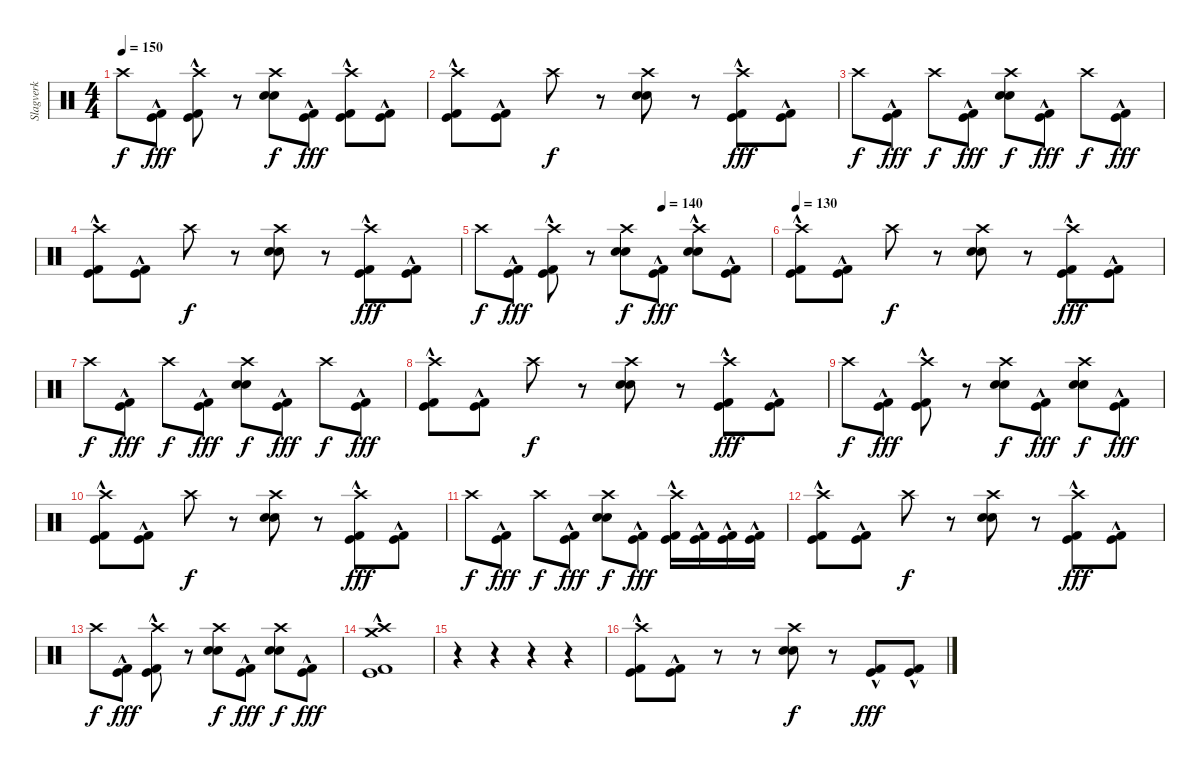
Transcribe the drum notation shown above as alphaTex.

\track ("Slagverk" "Slagverk") {instrument percussion}
\staff {score}
\articulation defaults
\ts (4 4)
\tempo 150
\clef neutral
\ks c "Crash high (hit)".8{dy f}
("Kick (hit)"{hac} "Kick (hit) 2"{hac}).8{dy fff} ("Crash high (hit)" "Kick (hit)"{hac} "Kick (hit) 2"{hac}).8 r.8 ("Crash high (hit)" "Electric Snare (hit)" "Snare (hit) 2").8{dy f} ("Kick (hit)"{hac} "Kick (hit) 2"{hac}).8{dy fff} ("Crash high (hit)" "Kick (hit)"{hac} "Kick (hit) 2"{hac}).8 ("Kick (hit)"{hac} "Kick (hit) 2"{hac}).8 |
("Crash high (hit)" "Kick (hit)"{hac} "Kick (hit) 2"{hac}).8 ("Kick (hit)"{hac} "Kick (hit) 2"{hac}).8 "Crash high (hit)".8{dy f} r.8 ("Crash high (hit)" "Electric Snare (hit)" "Snare (hit) 2").8 r.8 ("Crash high (hit)" "Kick (hit)"{hac} "Kick (hit) 2"{hac}).8{dy fff} ("Kick (hit)"{hac} "Kick (hit) 2"{hac}).8 |
"Crash high (hit)".8{dy f} ("Kick (hit)"{hac} "Kick (hit) 2"{hac}).8{dy fff} "Crash high (hit)".8{dy f} ("Kick (hit)"{hac} "Kick (hit) 2"{hac}).8{dy fff} ("Crash high (hit)" "Electric Snare (hit)" "Snare (hit) 2").8{dy f} ("Kick (hit)"{hac} "Kick (hit) 2"{hac}).8{dy fff} "Crash high (hit)".8{dy f} ("Kick (hit)"{hac} "Kick (hit) 2"{hac}).8{dy fff} |
("Crash high (hit)" "Kick (hit)"{hac} "Kick (hit) 2"{hac}).8 ("Kick (hit)"{hac} "Kick (hit) 2"{hac}).8 "Crash high (hit)".8{dy f} r.8 ("Crash high (hit)" "Electric Snare (hit)" "Snare (hit) 2").8 r.8 ("Crash high (hit)" "Kick (hit)"{hac} "Kick (hit) 2"{hac}).8{dy fff} ("Kick (hit)"{hac} "Kick (hit) 2"{hac}).8 |
\tempo (140 0.625)
"Crash high (hit)".8{dy f} ("Kick (hit)"{hac} "Kick (hit) 2"{hac}).8{dy fff} ("Crash high (hit)" "Kick (hit)"{hac} "Kick (hit) 2"{hac}).8 r.8 ("Crash high (hit)" "Electric Snare (hit)" "Snare (hit) 2").8{dy f} ("Kick (hit)"{hac} "Kick (hit) 2"{hac}).8{dy fff} ("Crash high (hit)" "Electric Snare (hit)"{hac} "Snare (hit) 2"{hac}).8 ("Kick (hit)"{hac} "Kick (hit) 2"{hac}).8 |
\tempo 130
("Crash high (hit)" "Kick (hit)"{hac} "Kick (hit) 2"{hac}).8 ("Kick (hit)"{hac} "Kick (hit) 2"{hac}).8 "Crash high (hit)".8{dy f} r.8 ("Crash high (hit)" "Electric Snare (hit)" "Snare (hit) 2").8 r.8 ("Crash high (hit)" "Kick (hit)"{hac} "Kick (hit) 2"{hac}).8{dy fff} ("Kick (hit)"{hac} "Kick (hit) 2"{hac}).8 |
"Crash high (hit)".8{dy f} ("Kick (hit)"{hac} "Kick (hit) 2"{hac}).8{dy fff} "Crash high (hit)".8{dy f} ("Kick (hit)"{hac} "Kick (hit) 2"{hac}).8{dy fff} ("Crash high (hit)" "Electric Snare (hit)" "Snare (hit) 2").8{dy f} ("Kick (hit)"{hac} "Kick (hit) 2"{hac}).8{dy fff} "Crash high (hit)".8{dy f} ("Kick (hit)"{hac} "Kick (hit) 2"{hac}).8{dy fff} |
("Crash high (hit)" "Kick (hit)"{hac} "Kick (hit) 2"{hac}).8 ("Kick (hit)"{hac} "Kick (hit) 2"{hac}).8 "Crash high (hit)".8{dy f} r.8 ("Crash high (hit)" "Electric Snare (hit)" "Snare (hit) 2").8 r.8 ("Crash high (hit)" "Kick (hit)"{hac} "Kick (hit) 2"{hac}).8{dy fff} ("Kick (hit)"{hac} "Kick (hit) 2"{hac}).8 |
"Crash high (hit)".8{dy f} ("Kick (hit)"{hac} "Kick (hit) 2"{hac}).8{dy fff} ("Crash high (hit)" "Kick (hit)"{hac} "Kick (hit) 2"{hac}).8 r.8 ("Crash high (hit)" "Electric Snare (hit)" "Snare (hit) 2").8{dy f} ("Kick (hit)"{hac} "Kick (hit) 2"{hac}).8{dy fff} ("Crash high (hit)" "Electric Snare (hit)" "Snare (hit) 2").8{dy f} ("Kick (hit)"{hac} "Kick (hit) 2"{hac}).8{dy fff} |
("Crash high (hit)" "Kick (hit)"{hac} "Kick (hit) 2"{hac}).8 ("Kick (hit)"{hac} "Kick (hit) 2"{hac}).8 "Crash high (hit)".8{dy f} r.8 ("Crash high (hit)" "Electric Snare (hit)" "Snare (hit) 2").8 r.8 ("Crash high (hit)" "Kick (hit)"{hac} "Kick (hit) 2"{hac}).8{dy fff} ("Kick (hit)"{hac} "Kick (hit) 2"{hac}).8 |
"Crash high (hit)".8{dy f} ("Kick (hit)"{hac} "Kick (hit) 2"{hac}).8{dy fff} "Crash high (hit)".8{dy f} ("Kick (hit)"{hac} "Kick (hit) 2"{hac}).8{dy fff} ("Crash high (hit)" "Electric Snare (hit)" "Snare (hit) 2").8{dy f} ("Kick (hit)"{hac} "Kick (hit) 2"{hac}).8{dy fff} ("Crash high (hit)" "Kick (hit)"{hac} "Kick (hit) 2"{hac}).16 ("Kick (hit)"{hac} "Kick (hit) 2"{hac}).16 ("Kick (hit)"{hac} "Kick (hit) 2"{hac}).16 ("Kick (hit)"{hac} "Kick (hit) 2"{hac}).16 |
("Crash high (hit)" "Kick (hit)"{hac} "Kick (hit) 2"{hac}).8 ("Kick (hit)"{hac} "Kick (hit) 2"{hac}).8 "Crash high (hit)".8{dy f} r.8 ("Crash high (hit)" "Electric Snare (hit)" "Snare (hit) 2").8 r.8 ("Crash high (hit)" "Kick (hit)"{hac} "Kick (hit) 2"{hac}).8{dy fff} ("Kick (hit)"{hac} "Kick (hit) 2"{hac}).8 |
"Crash high (hit)".8{dy f} ("Kick (hit)"{hac} "Kick (hit) 2"{hac}).8{dy fff} ("Crash high (hit)" "Kick (hit)"{hac} "Kick (hit) 2"{hac}).8 r.8 ("Crash high (hit)" "Electric Snare (hit)" "Snare (hit) 2").8{dy f} ("Kick (hit)"{hac} "Kick (hit) 2"{hac}).8{dy fff} ("Crash high (hit)" "Electric Snare (hit)" "Snare (hit) 2").8{dy f} ("Kick (hit)"{hac} "Kick (hit) 2"{hac}).8{dy fff} |
("Crash medium (hit)" "Crash high (hit)" "Kick (hit)"{hac} "Kick (hit) 2"{hac}).1 |
r.4 r.4 r.4 r.4 |
("Crash high (hit)" "Kick (hit)"{hac} "Kick (hit) 2"{hac}).8 ("Kick (hit)"{hac} "Kick (hit) 2"{hac}).8 r.8 r.8 ("Crash high (hit)" "Electric Snare (hit)" "Snare (hit) 2").8{dy f} r.8 ("Kick (hit)"{hac} "Kick (hit) 2"{hac}).8{dy fff} ("Kick (hit)"{hac} "Kick (hit) 2"{hac}).8
